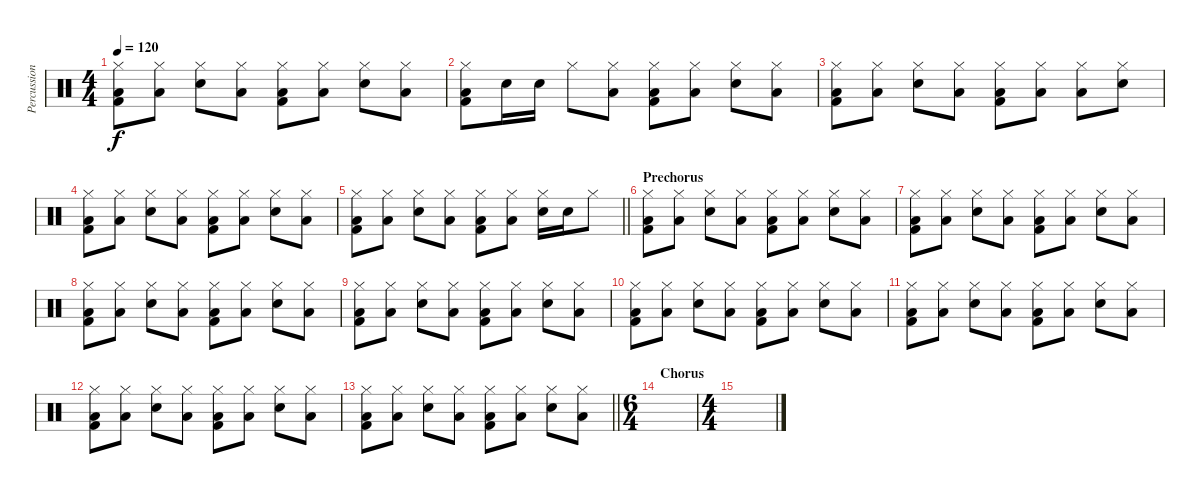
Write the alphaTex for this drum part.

\track ("Percussion" "Percussion") {instrument percussion}
\staff
\articulation defaults
\ts (4 4)
\tempo 120
\clef neutral
\ks c
("Hi-Hat (closed)" "Low Floor Tom (hit)" "Kick (hit) 2").8{dy f} ("Hi-Hat (closed)" "Low Floor Tom (hit)").8 ("Hi-Hat (closed)" "Snare (hit) 2").8 ("Hi-Hat (closed)" "Low Floor Tom (hit)").8 ("Hi-Hat (closed)" "Low Floor Tom (hit)" "Kick (hit) 2").8 ("Hi-Hat (closed)" "Low Floor Tom (hit)").8 ("Hi-Hat (closed)" "Snare (hit) 2").8 ("Hi-Hat (closed)" "Low Floor Tom (hit)").8 |
("Hi-Hat (closed)" "Low Floor Tom (hit)" "Kick (hit) 2").8 "Snare (hit) 2".16 "Snare (hit) 2".16 "Hi-Hat (closed)".8 ("Hi-Hat (closed)" "Low Floor Tom (hit)").8 ("Hi-Hat (closed)" "Low Floor Tom (hit)" "Kick (hit) 2").8 ("Hi-Hat (closed)" "Low Floor Tom (hit)").8 ("Hi-Hat (closed)" "Snare (hit) 2").8 ("Hi-Hat (closed)" "Low Floor Tom (hit)").8 |
("Hi-Hat (closed)" "Low Floor Tom (hit)" "Kick (hit) 2").8 ("Hi-Hat (closed)" "Low Floor Tom (hit)").8 ("Hi-Hat (closed)" "Snare (hit) 2").8 ("Hi-Hat (closed)" "Low Floor Tom (hit)").8 ("Hi-Hat (closed)" "Low Floor Tom (hit)" "Kick (hit) 2").8 ("Hi-Hat (closed)" "Low Floor Tom (hit)").8 ("Hi-Hat (closed)" "Low Floor Tom (hit)").8 ("Hi-Hat (closed)" "Snare (hit) 2").8 |
("Hi-Hat (closed)" "Low Floor Tom (hit)" "Kick (hit) 2").8 ("Hi-Hat (closed)" "Low Floor Tom (hit)").8 ("Hi-Hat (closed)" "Snare (hit) 2").8 ("Hi-Hat (closed)" "Low Floor Tom (hit)").8 ("Hi-Hat (closed)" "Low Floor Tom (hit)" "Kick (hit) 2").8 ("Hi-Hat (closed)" "Low Floor Tom (hit)").8 ("Hi-Hat (closed)" "Snare (hit) 2").8 ("Hi-Hat (closed)" "Low Floor Tom (hit)").8 |
\barLineRight lightlight
("Hi-Hat (closed)" "Low Floor Tom (hit)" "Kick (hit) 2").8 ("Hi-Hat (closed)" "Low Floor Tom (hit)").8 ("Hi-Hat (closed)" "Snare (hit) 2").8 ("Hi-Hat (closed)" "Low Floor Tom (hit)").8 ("Hi-Hat (closed)" "Low Floor Tom (hit)" "Kick (hit) 2").8 ("Hi-Hat (closed)" "Low Floor Tom (hit)").8 ("Hi-Hat (closed)" "Snare (hit) 2").16 "Snare (hit) 2".16 "Hi-Hat (closed)".8 |
\section ("" "Prechorus")
("Hi-Hat (closed)" "Low Floor Tom (hit)" "Kick (hit) 2").8 ("Hi-Hat (closed)" "Low Floor Tom (hit)").8 ("Hi-Hat (closed)" "Snare (hit) 2").8 ("Hi-Hat (closed)" "Low Floor Tom (hit)").8 ("Hi-Hat (closed)" "Low Floor Tom (hit)" "Kick (hit) 2").8 ("Hi-Hat (closed)" "Low Floor Tom (hit)").8 ("Hi-Hat (closed)" "Snare (hit) 2").8 ("Hi-Hat (closed)" "Low Floor Tom (hit)").8 |
("Hi-Hat (closed)" "Low Floor Tom (hit)" "Kick (hit) 2").8 ("Hi-Hat (closed)" "Low Floor Tom (hit)").8 ("Hi-Hat (closed)" "Snare (hit) 2").8 ("Hi-Hat (closed)" "Low Floor Tom (hit)").8 ("Hi-Hat (closed)" "Low Floor Tom (hit)" "Kick (hit) 2").8 ("Hi-Hat (closed)" "Low Floor Tom (hit)").8 ("Hi-Hat (closed)" "Snare (hit) 2").8 ("Hi-Hat (closed)" "Low Floor Tom (hit)").8 |
("Hi-Hat (closed)" "Low Floor Tom (hit)" "Kick (hit) 2").8 ("Hi-Hat (closed)" "Low Floor Tom (hit)").8 ("Hi-Hat (closed)" "Snare (hit) 2").8 ("Hi-Hat (closed)" "Low Floor Tom (hit)").8 ("Hi-Hat (closed)" "Low Floor Tom (hit)" "Kick (hit) 2").8 ("Hi-Hat (closed)" "Low Floor Tom (hit)").8 ("Hi-Hat (closed)" "Snare (hit) 2").8 ("Hi-Hat (closed)" "Low Floor Tom (hit)").8 |
("Hi-Hat (closed)" "Low Floor Tom (hit)" "Kick (hit) 2").8 ("Hi-Hat (closed)" "Low Floor Tom (hit)").8 ("Hi-Hat (closed)" "Snare (hit) 2").8 ("Hi-Hat (closed)" "Low Floor Tom (hit)").8 ("Hi-Hat (closed)" "Low Floor Tom (hit)" "Kick (hit) 2").8 ("Hi-Hat (closed)" "Low Floor Tom (hit)").8 ("Hi-Hat (closed)" "Snare (hit) 2").8 ("Hi-Hat (closed)" "Low Floor Tom (hit)").8 |
("Hi-Hat (closed)" "Low Floor Tom (hit)" "Kick (hit) 2").8 ("Hi-Hat (closed)" "Low Floor Tom (hit)").8 ("Hi-Hat (closed)" "Snare (hit) 2").8 ("Hi-Hat (closed)" "Low Floor Tom (hit)").8 ("Hi-Hat (closed)" "Low Floor Tom (hit)" "Kick (hit) 2").8 ("Hi-Hat (closed)" "Low Floor Tom (hit)").8 ("Hi-Hat (closed)" "Snare (hit) 2").8 ("Hi-Hat (closed)" "Low Floor Tom (hit)").8 |
("Hi-Hat (closed)" "Low Floor Tom (hit)" "Kick (hit) 2").8 ("Hi-Hat (closed)" "Low Floor Tom (hit)").8 ("Hi-Hat (closed)" "Snare (hit) 2").8 ("Hi-Hat (closed)" "Low Floor Tom (hit)").8 ("Hi-Hat (closed)" "Low Floor Tom (hit)" "Kick (hit) 2").8 ("Hi-Hat (closed)" "Low Floor Tom (hit)").8 ("Hi-Hat (closed)" "Snare (hit) 2").8 ("Hi-Hat (closed)" "Low Floor Tom (hit)").8 |
("Hi-Hat (closed)" "Low Floor Tom (hit)" "Kick (hit) 2").8 ("Hi-Hat (closed)" "Low Floor Tom (hit)").8 ("Hi-Hat (closed)" "Snare (hit) 2").8 ("Hi-Hat (closed)" "Low Floor Tom (hit)").8 ("Hi-Hat (closed)" "Low Floor Tom (hit)" "Kick (hit) 2").8 ("Hi-Hat (closed)" "Low Floor Tom (hit)").8 ("Hi-Hat (closed)" "Snare (hit) 2").8 ("Hi-Hat (closed)" "Low Floor Tom (hit)").8 |
\barLineRight lightlight
("Hi-Hat (closed)" "Low Floor Tom (hit)" "Kick (hit) 2").8 ("Hi-Hat (closed)" "Low Floor Tom (hit)").8 ("Hi-Hat (closed)" "Snare (hit) 2").8 ("Hi-Hat (closed)" "Low Floor Tom (hit)").8 ("Hi-Hat (closed)" "Low Floor Tom (hit)" "Kick (hit) 2").8 ("Hi-Hat (closed)" "Low Floor Tom (hit)").8 ("Hi-Hat (closed)" "Snare (hit) 2").8 ("Hi-Hat (closed)" "Low Floor Tom (hit)").8 |
\ts (6 4)
\section ("" "Chorus")
|
\ts (4 4)
